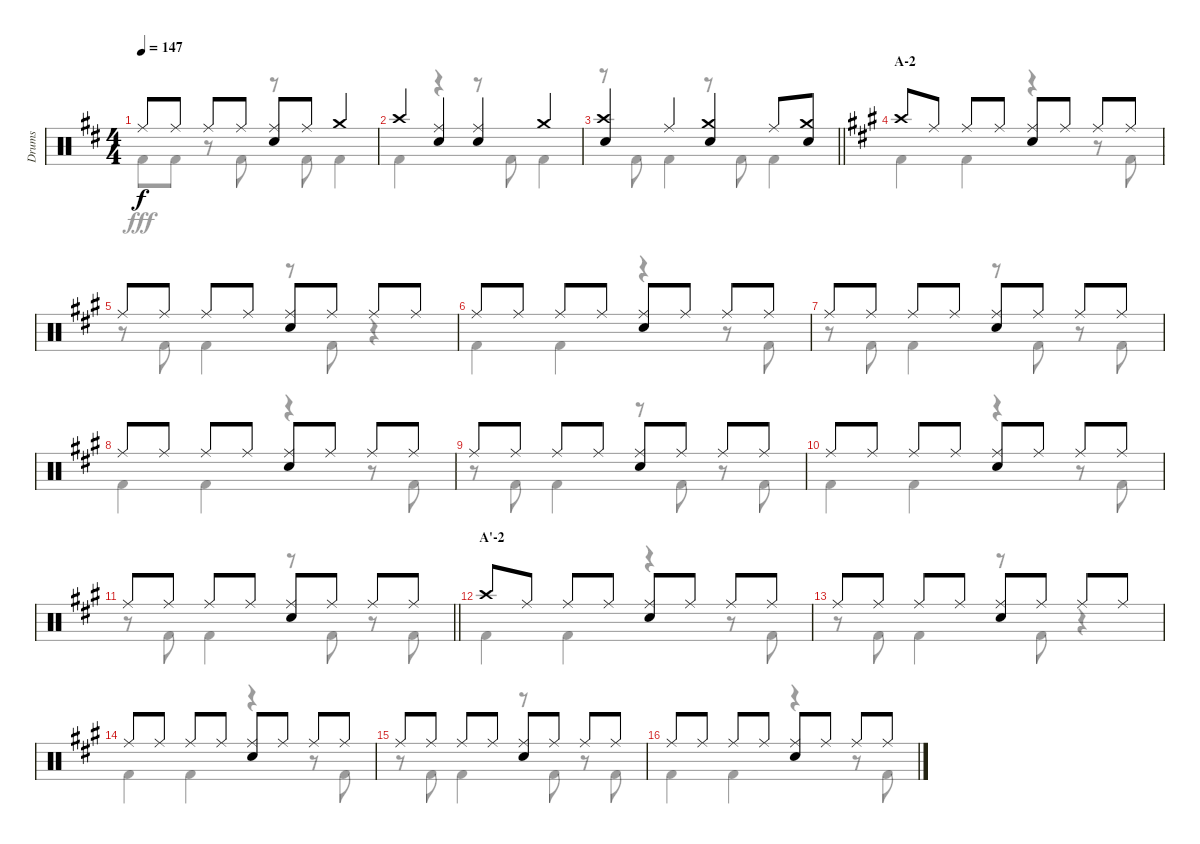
\track ("Drums" "Drums") {instrument percussion}
\staff {score}
\articulation defaults
\voice
\ts (4 4)
\tempo 147
\clef neutral
\ks d "Ride (middle)".8{dy f} "Ride (middle)".8 "Ride (middle)".8 "Ride (middle)".8
("Ride (middle)" "Snare (hit) 2").8 "Ride (middle)".8 "Crash medium (hit)".4 |
"Crash high (hit)".4 ("Ride (middle)" "Snare (hit) 2").4 ("Ride (middle)" "Snare (hit) 2").4 "Crash medium (hit)".4 |
\barLineRight lightlight
("Crash high (hit)" "Snare (hit) 2").4 "Ride (middle)".4 ("Crash medium (hit)" "Snare (hit) 2").4 "Ride (middle)".8 ("Crash medium (hit)" "Snare (hit) 2").8 |
\section ("" "A-2")
\ks a "Crash high (hit)".8 "Ride (middle)".8 "Ride (middle)".8 "Ride (middle)".8
("Ride (middle)" "Snare (hit) 2").8 "Ride (middle)".8 "Ride (middle)".8 "Ride (middle)".8 |
"Ride (middle)".8 "Ride (middle)".8 "Ride (middle)".8 "Ride (middle)".8 ("Ride (middle)" "Snare (hit) 2").8 "Ride (middle)".8 "Ride (middle)".8 "Ride (middle)".8 |
"Ride (middle)".8 "Ride (middle)".8 "Ride (middle)".8 "Ride (middle)".8 ("Ride (middle)" "Snare (hit) 2").8 "Ride (middle)".8 "Ride (middle)".8 "Ride (middle)".8 |
"Ride (middle)".8 "Ride (middle)".8 "Ride (middle)".8 "Ride (middle)".8 ("Ride (middle)" "Snare (hit) 2").8 "Ride (middle)".8 "Ride (middle)".8 "Ride (middle)".8 |
"Ride (middle)".8 "Ride (middle)".8 "Ride (middle)".8 "Ride (middle)".8 ("Ride (middle)" "Snare (hit) 2").8 "Ride (middle)".8 "Ride (middle)".8 "Ride (middle)".8 |
"Ride (middle)".8 "Ride (middle)".8 "Ride (middle)".8 "Ride (middle)".8 ("Ride (middle)" "Snare (hit) 2").8 "Ride (middle)".8 "Ride (middle)".8 "Ride (middle)".8 |
"Ride (middle)".8 "Ride (middle)".8 "Ride (middle)".8 "Ride (middle)".8 ("Ride (middle)" "Snare (hit) 2").8 "Ride (middle)".8 "Ride (middle)".8 "Ride (middle)".8 |
\barLineRight lightlight "Ride (middle)".8 "Ride (middle)".8 "Ride (middle)".8 "Ride (middle)".8
("Ride (middle)" "Snare (hit) 2").8 "Ride (middle)".8 "Ride (middle)".8 "Ride (middle)".8 |
\section ("" "A'-2")
"Crash high (hit)".8 "Ride (middle)".8 "Ride (middle)".8 "Ride (middle)".8 ("Ride (middle)" "Snare (hit) 2").8 "Ride (middle)".8 "Ride (middle)".8 "Ride (middle)".8 |
"Ride (middle)".8 "Ride (middle)".8 "Ride (middle)".8 "Ride (middle)".8 ("Ride (middle)" "Snare (hit) 2").8 "Ride (middle)".8 "Ride (middle)".8 "Ride (middle)".8 |
"Ride (middle)".8 "Ride (middle)".8 "Ride (middle)".8 "Ride (middle)".8 ("Ride (middle)" "Snare (hit) 2").8 "Ride (middle)".8 "Ride (middle)".8 "Ride (middle)".8 |
"Ride (middle)".8 "Ride (middle)".8 "Ride (middle)".8 "Ride (middle)".8 ("Ride (middle)" "Snare (hit) 2").8 "Ride (middle)".8 "Ride (middle)".8 "Ride (middle)".8 |
"Ride (middle)".8 "Ride (middle)".8 "Ride (middle)".8 "Ride (middle)".8 ("Ride (middle)" "Snare (hit) 2").8 "Ride (middle)".8 "Ride (middle)".8 "Ride (middle)".8
\voice
\clef neutral
\ottava regular
\simile none
\ks d "Kick (hit) 2".8{dy fff} "Kick (hit) 2".8
r.8 "Kick (hit) 2".8 r.8 "Kick (hit) 2".8 "Kick (hit) 2".4 |
"Kick (hit) 2".4 r.4 r.8 "Kick (hit) 2".8 "Kick (hit) 2".4 |
\barLineRight lightlight
r.8 "Kick (hit) 2".8 "Kick (hit) 2".4 r.8 "Kick (hit) 2".8 "Kick (hit) 2".4 |
\ks a "Kick (hit) 2".4 "Kick (hit) 2".4
r.4 r.8 "Kick (hit) 2".8 |
r.8 "Kick (hit) 2".8 "Kick (hit) 2".4 r.8 "Kick (hit) 2".8 r.4 |
"Kick (hit) 2".4 "Kick (hit) 2".4 r.4 r.8 "Kick (hit) 2".8 |
r.8 "Kick (hit) 2".8 "Kick (hit) 2".4 r.8 "Kick (hit) 2".8 r.8 "Kick (hit) 2".8 |
"Kick (hit) 2".4 "Kick (hit) 2".4 r.4 r.8 "Kick (hit) 2".8 |
r.8 "Kick (hit) 2".8 "Kick (hit) 2".4 r.8 "Kick (hit) 2".8 r.8 "Kick (hit) 2".8 |
"Kick (hit) 2".4 "Kick (hit) 2".4 r.4 r.8 "Kick (hit) 2".8 |
\barLineRight lightlight
r.8 "Kick (hit) 2".8 "Kick (hit) 2".4 r.8 "Kick (hit) 2".8 r.8 "Kick (hit) 2".8 |
"Kick (hit) 2".4 "Kick (hit) 2".4 r.4 r.8 "Kick (hit) 2".8 |
r.8 "Kick (hit) 2".8 "Kick (hit) 2".4 r.8 "Kick (hit) 2".8 r.4 |
"Kick (hit) 2".4 "Kick (hit) 2".4 r.4 r.8 "Kick (hit) 2".8 |
r.8 "Kick (hit) 2".8 "Kick (hit) 2".4 r.8 "Kick (hit) 2".8 r.8 "Kick (hit) 2".8 |
"Kick (hit) 2".4 "Kick (hit) 2".4 r.4 r.8 "Kick (hit) 2".8
